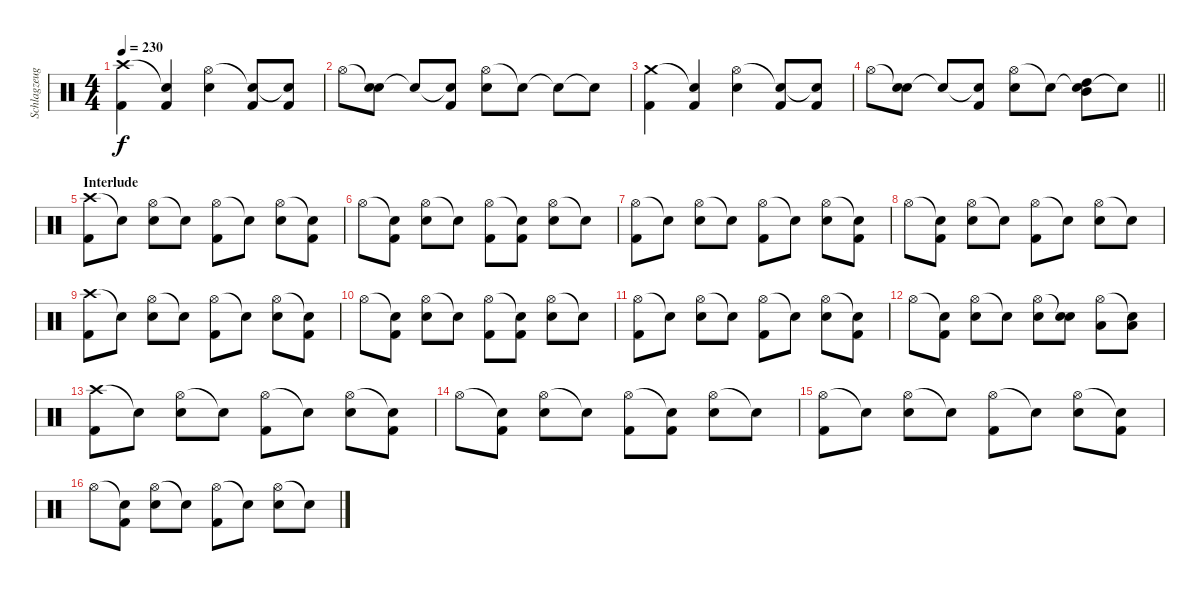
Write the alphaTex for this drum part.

\track ("Schlagzeug" "Schlagzeug") {instrument percussion}
\staff {score}
\articulation defaults
\ts (4 4)
\tempo 230
\clef neutral
\ks c
("Crash high (hit)" "Kick (hit) 2").4{dy f} ("Snare (hit)"{t} "Kick (hit) 2").4 ("Hi-Hat (open)" "Snare (hit) 2").4 ("Snare (hit)"{t} "Kick (hit) 2").8 ("Snare (hit)"{t} "Kick (hit) 2").8 |
"Hi-Hat (open)".8 ("Snare (hit)"{t} "Snare (hit) 2").8 "Snare (hit)"{t}.8 ("Snare (hit)"{t} "Kick (hit) 2").8 ("Hi-Hat (open)" "Snare (hit) 2").8 "Snare (hit)"{t}.8 "Snare (hit)"{t}.8 "Snare (hit)"{t}.8 |
("Crash medium (hit)" "Kick (hit) 2").4 ("Snare (hit)"{t} "Kick (hit) 2").4 ("Hi-Hat (open)" "Snare (hit) 2").4 ("Snare (hit)"{t} "Kick (hit) 2").8 ("Snare (hit)"{t} "Kick (hit) 2").8 |
\barLineRight lightlight "Hi-Hat (open)".8
("Snare (hit)"{t} "Snare (hit) 2").8 "Snare (hit)"{t}.8 ("Snare (hit)"{t} "Kick (hit) 2").8 ("Hi-Hat (open)" "Snare (hit) 2").8 "Snare (hit)"{t}.8 ("Snare (hit)"{t} "Mid Tom (hit)" "High Tom (hit)").8 "Snare (hit)"{t}.8 |
\section ("" "Interlude")
("Crash high (hit)" "Kick (hit) 2").8 "Snare (hit)"{t}.8 ("Hi-Hat (open)" "Snare (hit) 2").8 "Snare (hit)"{t}.8 ("Hi-Hat (open)" "Kick (hit) 2").8 "Snare (hit)"{t}.8 ("Hi-Hat (open)" "Snare (hit) 2").8 ("Snare (hit)"{t} "Kick (hit) 2").8 |
"Hi-Hat (open)".8 ("Snare (hit)"{t} "Kick (hit) 2").8 ("Hi-Hat (open)" "Snare (hit) 2").8 "Snare (hit)"{t}.8 ("Hi-Hat (open)" "Kick (hit) 2").8 ("Snare (hit)"{t} "Kick (hit) 2").8 ("Hi-Hat (open)" "Snare (hit) 2").8 "Snare (hit)"{t}.8 |
("Hi-Hat (open)" "Kick (hit) 2").8 "Snare (hit)"{t}.8 ("Hi-Hat (open)" "Snare (hit) 2").8 "Snare (hit)"{t}.8 ("Hi-Hat (open)" "Kick (hit) 2").8 "Snare (hit)"{t}.8 ("Hi-Hat (open)" "Snare (hit) 2").8 ("Snare (hit)"{t} "Kick (hit) 2").8 |
"Hi-Hat (open)".8 ("Snare (hit)"{t} "Kick (hit) 2").8 ("Hi-Hat (open)" "Snare (hit) 2").8 "Snare (hit)"{t}.8 ("Hi-Hat (open)" "Kick (hit) 2").8 "Snare (hit)"{t}.8 ("Hi-Hat (open)" "Snare (hit) 2").8 "Snare (hit)"{t}.8 |
("Crash high (hit)" "Kick (hit) 2").8 "Snare (hit)"{t}.8 ("Hi-Hat (open)" "Snare (hit) 2").8 "Snare (hit)"{t}.8 ("Hi-Hat (open)" "Kick (hit) 2").8 "Snare (hit)"{t}.8 ("Hi-Hat (open)" "Snare (hit) 2").8 ("Snare (hit)"{t} "Kick (hit) 2").8 |
"Hi-Hat (open)".8 ("Snare (hit)"{t} "Kick (hit) 2").8 ("Hi-Hat (open)" "Snare (hit) 2").8 "Snare (hit)"{t}.8 ("Hi-Hat (open)" "Kick (hit) 2").8 ("Snare (hit)"{t} "Kick (hit) 2").8 ("Hi-Hat (open)" "Snare (hit) 2").8 "Snare (hit)"{t}.8 |
("Hi-Hat (open)" "Kick (hit) 2").8 "Snare (hit)"{t}.8 ("Hi-Hat (open)" "Snare (hit) 2").8 "Snare (hit)"{t}.8 ("Hi-Hat (open)" "Kick (hit) 2").8 "Snare (hit)"{t}.8 ("Hi-Hat (open)" "Snare (hit) 2").8 ("Snare (hit)"{t} "Kick (hit) 2").8 |
"Hi-Hat (open)".8 ("Snare (hit)"{t} "Kick (hit) 2").8 ("Hi-Hat (open)" "Snare (hit) 2").8 "Snare (hit)"{t}.8 ("Hi-Hat (open)" "Snare (hit) 2").8 ("Snare (hit)"{t} "Snare (hit) 2").8 ("Hi-Hat (open)" "Low Tom (hit)").8 ("Snare (hit)"{t} "Low Tom (hit)").8 |
("Crash high (hit)" "Kick (hit) 2").8 "Snare (hit)"{t}.8 ("Hi-Hat (open)" "Snare (hit) 2").8 "Snare (hit)"{t}.8 ("Hi-Hat (open)" "Kick (hit) 2").8 "Snare (hit)"{t}.8 ("Hi-Hat (open)" "Snare (hit) 2").8 ("Snare (hit)"{t} "Kick (hit) 2").8 |
"Hi-Hat (open)".8 ("Snare (hit)"{t} "Kick (hit) 2").8 ("Hi-Hat (open)" "Snare (hit) 2").8 "Snare (hit)"{t}.8 ("Hi-Hat (open)" "Kick (hit) 2").8 ("Snare (hit)"{t} "Kick (hit) 2").8 ("Hi-Hat (open)" "Snare (hit) 2").8 "Snare (hit)"{t}.8 |
("Hi-Hat (open)" "Kick (hit) 2").8 "Snare (hit)"{t}.8 ("Hi-Hat (open)" "Snare (hit) 2").8 "Snare (hit)"{t}.8 ("Hi-Hat (open)" "Kick (hit) 2").8 "Snare (hit)"{t}.8 ("Hi-Hat (open)" "Snare (hit) 2").8 ("Snare (hit)"{t} "Kick (hit) 2").8 |
"Hi-Hat (open)".8 ("Snare (hit)"{t} "Kick (hit) 2").8 ("Hi-Hat (open)" "Snare (hit) 2").8 "Snare (hit)"{t}.8 ("Hi-Hat (open)" "Kick (hit) 2").8 "Snare (hit)"{t}.8 ("Hi-Hat (open)" "Snare (hit) 2").8 "Snare (hit)"{t}.8
